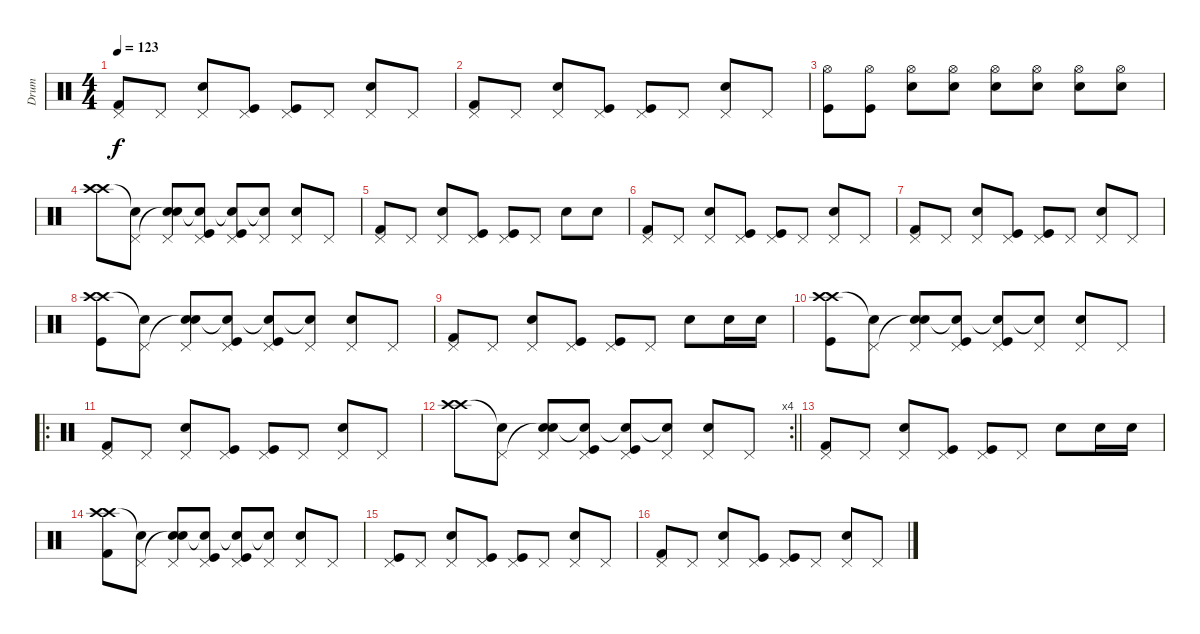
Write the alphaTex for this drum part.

\track ("Drum" "Drum") {instrument percussion}
\staff {score}
\articulation defaults
\ts (4 4)
\tempo 123
\clef neutral
\ks c
("Kick (hit) 2" "Pedal Hi-Hat (hit)").8{dy f} "Pedal Hi-Hat (hit)".8 ("Snare (hit) 2" "Pedal Hi-Hat (hit)").8 ("Kick (hit)" "Pedal Hi-Hat (hit)").8 ("Kick (hit)" "Pedal Hi-Hat (hit)").8 "Pedal Hi-Hat (hit)".8 ("Snare (hit) 2" "Pedal Hi-Hat (hit)").8 "Pedal Hi-Hat (hit)".8 |
("Kick (hit) 2" "Pedal Hi-Hat (hit)").8 "Pedal Hi-Hat (hit)".8 ("Snare (hit) 2" "Pedal Hi-Hat (hit)").8 ("Kick (hit)" "Pedal Hi-Hat (hit)").8 ("Kick (hit)" "Pedal Hi-Hat (hit)").8 "Pedal Hi-Hat (hit)".8 ("Snare (hit) 2" "Pedal Hi-Hat (hit)").8 "Pedal Hi-Hat (hit)".8 |
("Kick (hit)" "Hi-Hat (open)").8 ("Kick (hit)" "Hi-Hat (open)").8 ("Snare (hit) 2" "Hi-Hat (open)").8 ("Snare (hit) 2" "Hi-Hat (open)").8 ("Snare (hit) 2" "Hi-Hat (open)").8 ("Snare (hit) 2" "Hi-Hat (open)").8 ("Snare (hit) 2" "Hi-Hat (open)").8 ("Snare (hit) 2" "Hi-Hat (open)").8 |
("Crash high (hit)" "Crash high (hit)").8 ("Snare (hit)"{t} "Pedal Hi-Hat (hit)").8 ("Snare (hit) 2" "Snare (hit)"{t} "Pedal Hi-Hat (hit)").8 ("Snare (hit)"{t} "Kick (hit)" "Pedal Hi-Hat (hit)").8 ("Snare (hit)"{t} "Kick (hit)" "Pedal Hi-Hat (hit)").8 ("Snare (hit)"{t} "Pedal Hi-Hat (hit)").8 ("Snare (hit) 2" "Pedal Hi-Hat (hit)").8 "Pedal Hi-Hat (hit)".8 |
("Kick (hit) 2" "Pedal Hi-Hat (hit)").8 "Pedal Hi-Hat (hit)".8 ("Snare (hit) 2" "Pedal Hi-Hat (hit)").8 ("Kick (hit)" "Pedal Hi-Hat (hit)").8 ("Kick (hit)" "Pedal Hi-Hat (hit)").8 "Pedal Hi-Hat (hit)".8 "Snare (hit) 2".8 "Snare (hit) 2".8 |
("Kick (hit) 2" "Pedal Hi-Hat (hit)").8 "Pedal Hi-Hat (hit)".8 ("Snare (hit) 2" "Pedal Hi-Hat (hit)").8 ("Kick (hit)" "Pedal Hi-Hat (hit)").8 ("Kick (hit)" "Pedal Hi-Hat (hit)").8 "Pedal Hi-Hat (hit)".8 ("Snare (hit) 2" "Pedal Hi-Hat (hit)").8 "Pedal Hi-Hat (hit)".8 |
("Kick (hit) 2" "Pedal Hi-Hat (hit)").8 "Pedal Hi-Hat (hit)".8 ("Snare (hit) 2" "Pedal Hi-Hat (hit)").8 ("Kick (hit)" "Pedal Hi-Hat (hit)").8 ("Kick (hit)" "Pedal Hi-Hat (hit)").8 "Pedal Hi-Hat (hit)".8 ("Snare (hit) 2" "Pedal Hi-Hat (hit)").8 "Pedal Hi-Hat (hit)".8 |
("Crash high (hit)" "Crash high (hit)" "Kick (hit)").8 ("Snare (hit)"{t} "Pedal Hi-Hat (hit)").8 ("Snare (hit) 2" "Snare (hit)"{t} "Pedal Hi-Hat (hit)").8 ("Snare (hit)"{t} "Kick (hit)" "Pedal Hi-Hat (hit)").8 ("Snare (hit)"{t} "Kick (hit)" "Pedal Hi-Hat (hit)").8 ("Snare (hit)"{t} "Pedal Hi-Hat (hit)").8 ("Snare (hit) 2" "Pedal Hi-Hat (hit)").8 "Pedal Hi-Hat (hit)".8 |
("Kick (hit) 2" "Pedal Hi-Hat (hit)").8 "Pedal Hi-Hat (hit)".8 ("Snare (hit) 2" "Pedal Hi-Hat (hit)").8 ("Kick (hit)" "Pedal Hi-Hat (hit)").8 ("Kick (hit)" "Pedal Hi-Hat (hit)").8 "Pedal Hi-Hat (hit)".8 "Snare (hit) 2".8 "Snare (hit) 2".16 "Snare (hit) 2".16 |
("Crash high (hit)" "Crash high (hit)" "Kick (hit)").8 ("Snare (hit)"{t} "Pedal Hi-Hat (hit)").8 ("Snare (hit) 2" "Snare (hit)"{t} "Pedal Hi-Hat (hit)").8 ("Snare (hit)"{t} "Kick (hit)" "Pedal Hi-Hat (hit)").8 ("Snare (hit)"{t} "Kick (hit)" "Pedal Hi-Hat (hit)").8 ("Snare (hit)"{t} "Pedal Hi-Hat (hit)").8 ("Snare (hit) 2" "Pedal Hi-Hat (hit)").8 "Pedal Hi-Hat (hit)".8 |
\ro
("Kick (hit) 2" "Pedal Hi-Hat (hit)").8 "Pedal Hi-Hat (hit)".8 ("Snare (hit) 2" "Pedal Hi-Hat (hit)").8 ("Kick (hit)" "Pedal Hi-Hat (hit)").8 ("Kick (hit)" "Pedal Hi-Hat (hit)").8 "Pedal Hi-Hat (hit)".8 ("Snare (hit) 2" "Pedal Hi-Hat (hit)").8 "Pedal Hi-Hat (hit)".8 |
\rc 4
\barLineRight lightlight
("Crash high (hit)" "Crash high (hit)").8 ("Snare (hit)"{t} "Pedal Hi-Hat (hit)").8 ("Snare (hit) 2" "Snare (hit)"{t} "Pedal Hi-Hat (hit)").8 ("Snare (hit)"{t} "Kick (hit)" "Pedal Hi-Hat (hit)").8 ("Snare (hit)"{t} "Kick (hit)" "Pedal Hi-Hat (hit)").8 ("Snare (hit)"{t} "Pedal Hi-Hat (hit)").8 ("Snare (hit) 2" "Pedal Hi-Hat (hit)").8 "Pedal Hi-Hat (hit)".8 |
("Kick (hit) 2" "Pedal Hi-Hat (hit)").8 "Pedal Hi-Hat (hit)".8 ("Snare (hit) 2" "Pedal Hi-Hat (hit)").8 ("Kick (hit)" "Pedal Hi-Hat (hit)").8 ("Kick (hit)" "Pedal Hi-Hat (hit)").8 "Pedal Hi-Hat (hit)".8 "Snare (hit) 2".8 "Snare (hit) 2".16 "Snare (hit) 2".16 |
("Crash high (hit)" "Crash high (hit)" "Kick (hit) 2").8 ("Snare (hit)"{t} "Pedal Hi-Hat (hit)").8 ("Snare (hit) 2" "Snare (hit)"{t} "Pedal Hi-Hat (hit)").8 ("Snare (hit)"{t} "Kick (hit)" "Pedal Hi-Hat (hit)").8 ("Snare (hit)"{t} "Kick (hit)" "Pedal Hi-Hat (hit)").8 ("Snare (hit)"{t} "Pedal Hi-Hat (hit)").8 ("Snare (hit) 2" "Pedal Hi-Hat (hit)").8 "Pedal Hi-Hat (hit)".8 |
("Kick (hit)" "Pedal Hi-Hat (hit)").8 "Pedal Hi-Hat (hit)".8 ("Snare (hit) 2" "Pedal Hi-Hat (hit)").8 ("Kick (hit)" "Pedal Hi-Hat (hit)").8 ("Kick (hit)" "Pedal Hi-Hat (hit)").8 "Pedal Hi-Hat (hit)".8 ("Snare (hit) 2" "Pedal Hi-Hat (hit)").8 "Pedal Hi-Hat (hit)".8 |
("Kick (hit) 2" "Pedal Hi-Hat (hit)").8 "Pedal Hi-Hat (hit)".8 ("Snare (hit) 2" "Pedal Hi-Hat (hit)").8 ("Kick (hit)" "Pedal Hi-Hat (hit)").8 ("Kick (hit)" "Pedal Hi-Hat (hit)").8 "Pedal Hi-Hat (hit)".8 ("Snare (hit) 2" "Pedal Hi-Hat (hit)").8 "Pedal Hi-Hat (hit)".8
